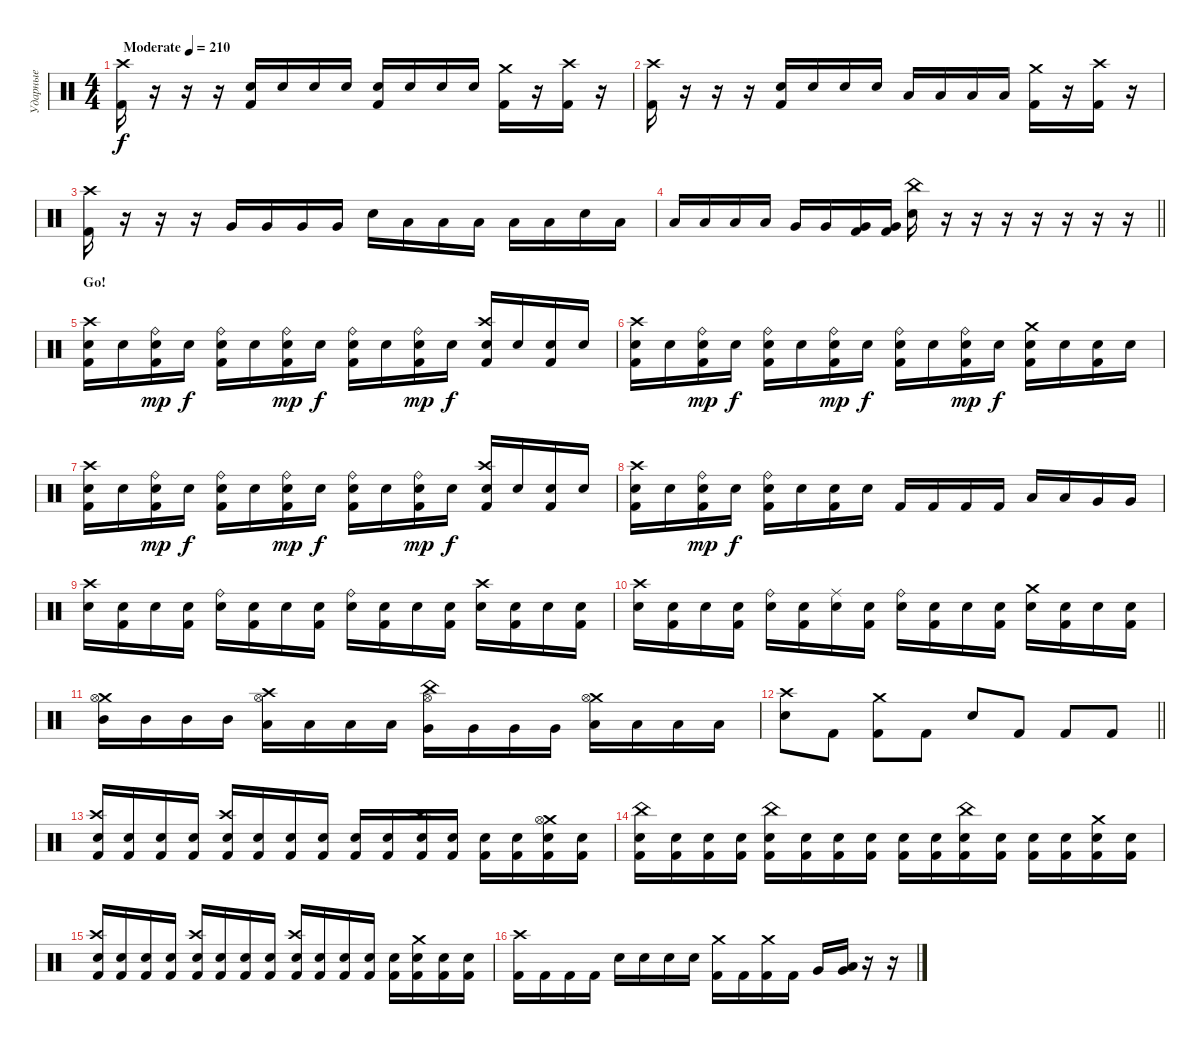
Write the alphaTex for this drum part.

\track ("Ударные" "Ударные") {instrument percussion}
\staff {score}
\articulation defaults
\ts (4 4)
\tempo (210 "Moderate")
\clef neutral
\ks c
("Kick (hit) 2" "Crash high (hit)").16{dy f} r.16 r.16 r.16 ("Electric Snare (hit)" "Kick (hit) 2").16 "Electric Snare (hit)".16 "Electric Snare (hit)".16 "Electric Snare (hit)".16 ("Electric Snare (hit)" "Kick (hit) 2").16 "Electric Snare (hit)".16 "Electric Snare (hit)".16 "Electric Snare (hit)".16 ("Kick (hit) 2" "Crash medium (hit)").16 r.16 ("Kick (hit) 2" "Crash high (hit)").16 r.16 |
("Kick (hit) 2" "Crash high (hit)").16 r.16 r.16 r.16 ("Electric Snare (hit)" "Kick (hit) 2").16 "Electric Snare (hit)".16 "Electric Snare (hit)".16 "Electric Snare (hit)".16 "Low Tom (hit)".16 "Low Tom (hit)".16 "Low Tom (hit)".16 "Low Tom (hit)".16 ("Kick (hit) 2" "Crash medium (hit)").16 r.16 ("Kick (hit) 2" "Crash high (hit)").16 r.16 |
("Kick (hit) 2" "Crash high (hit)").16 r.16 r.16 r.16 "Very Low Tom (hit)".16 "Very Low Tom (hit)".16 "Very Low Tom (hit)".16 "Very Low Tom (hit)".16 "Electric Snare (hit)".16 "Low Floor Tom (hit)".16 "Low Floor Tom (hit)".16 "Low Floor Tom (hit)".16 "Low Floor Tom (hit)".16 "Low Floor Tom (hit)".16 "Electric Snare (hit)".16 "Low Floor Tom (hit)".16 |
\barLineRight lightlight "Low Tom (hit)".16 "Low Tom (hit)".16 "Low Tom (hit)".16 "Low Tom (hit)".16 "Very Low Tom (hit)".16 "Very Low Tom (hit)".16
("Very Low Tom (hit)" "Kick (hit) 2").16 ("Very Low Tom (hit)" "Kick (hit) 2").16 ("Electric Snare (hit)" "China (hit)").16 r.16 r.16 r.16 r.16 r.16 r.16 r.16 |
\section ("" "Go!")
("Kick (hit) 2" "Electric Snare (hit)" "Crash high (hit)").16 "Electric Snare (hit)".16 ("Kick (hit) 2" "Electric Snare (hit)" "Ride (bell)").16{dy mp} "Electric Snare (hit)".16{dy f} ("Kick (hit) 2" "Electric Snare (hit)" "Ride (bell)").16 "Electric Snare (hit)".16 ("Kick (hit) 2" "Electric Snare (hit)" "Ride (bell)").16{dy mp} "Electric Snare (hit)".16{dy f} ("Kick (hit) 2" "Electric Snare (hit)" "Ride (bell)").16 "Electric Snare (hit)".16 ("Kick (hit) 2" "Electric Snare (hit)" "Ride (bell)").16{dy mp} "Electric Snare (hit)".16{dy f} ("Kick (hit) 2" "Electric Snare (hit)" "Crash high (hit)").16 "Electric Snare (hit)".16 ("Kick (hit) 2" "Electric Snare (hit)").16 "Electric Snare (hit)".16 |
("Kick (hit) 2" "Electric Snare (hit)" "Crash high (hit)").16 "Electric Snare (hit)".16 ("Kick (hit) 2" "Electric Snare (hit)" "Ride (bell)").16{dy mp} "Electric Snare (hit)".16{dy f} ("Kick (hit) 2" "Electric Snare (hit)" "Ride (bell)").16 "Electric Snare (hit)".16 ("Kick (hit) 2" "Electric Snare (hit)" "Ride (bell)").16{dy mp} "Electric Snare (hit)".16{dy f} ("Kick (hit) 2" "Electric Snare (hit)" "Ride (bell)").16 "Electric Snare (hit)".16 ("Kick (hit) 2" "Electric Snare (hit)" "Ride (bell)").16{dy mp} "Electric Snare (hit)".16{dy f} ("Kick (hit) 2" "Electric Snare (hit)" "Crash medium (hit)").16 "Electric Snare (hit)".16 ("Kick (hit) 2" "Electric Snare (hit)").16 "Electric Snare (hit)".16 |
("Kick (hit) 2" "Electric Snare (hit)" "Crash high (hit)").16 "Electric Snare (hit)".16 ("Kick (hit) 2" "Electric Snare (hit)" "Ride (bell)").16{dy mp} "Electric Snare (hit)".16{dy f} ("Kick (hit) 2" "Electric Snare (hit)" "Ride (bell)").16 "Electric Snare (hit)".16 ("Kick (hit) 2" "Electric Snare (hit)" "Ride (bell)").16{dy mp} "Electric Snare (hit)".16{dy f} ("Kick (hit) 2" "Electric Snare (hit)" "Ride (bell)").16 "Electric Snare (hit)".16 ("Kick (hit) 2" "Electric Snare (hit)" "Ride (bell)").16{dy mp} "Electric Snare (hit)".16{dy f} ("Kick (hit) 2" "Electric Snare (hit)" "Crash high (hit)").16 "Electric Snare (hit)".16 ("Kick (hit) 2" "Electric Snare (hit)").16 "Electric Snare (hit)".16 |
("Kick (hit) 2" "Electric Snare (hit)" "Crash high (hit)").16 "Electric Snare (hit)".16 ("Kick (hit) 2" "Electric Snare (hit)" "Ride (bell)").16{dy mp} "Electric Snare (hit)".16{dy f} ("Kick (hit) 2" "Electric Snare (hit)" "Ride (bell)").16 "Electric Snare (hit)".16 ("Kick (hit) 2" "Electric Snare (hit)").16 "Electric Snare (hit)".16 "Kick (hit) 2".16 "Kick (hit) 2".16 "Kick (hit) 2".16 "Kick (hit) 2".16 "Low Tom (hit)".16 "Low Tom (hit)".16 "Very Low Tom (hit)".16 "Very Low Tom (hit)".16 |
("Electric Snare (hit)" "Crash high (hit)").16 ("Kick (hit) 2" "Electric Snare (hit)").16 "Electric Snare (hit)".16 ("Kick (hit) 2" "Electric Snare (hit)").16 ("Electric Snare (hit)" "Ride (bell)").16 ("Kick (hit) 2" "Electric Snare (hit)").16 "Electric Snare (hit)".16 ("Kick (hit) 2" "Electric Snare (hit)").16 ("Electric Snare (hit)" "Ride (bell)").16 ("Kick (hit) 2" "Electric Snare (hit)").16 "Electric Snare (hit)".16 ("Kick (hit) 2" "Electric Snare (hit)").16 ("Electric Snare (hit)" "Crash high (hit)").16 ("Kick (hit) 2" "Electric Snare (hit)").16 "Electric Snare (hit)".16 ("Kick (hit) 2" "Electric Snare (hit)").16 |
("Electric Snare (hit)" "Crash high (hit)").16 ("Kick (hit) 2" "Electric Snare (hit)").16 "Electric Snare (hit)".16 ("Kick (hit) 2" "Electric Snare (hit)").16 ("Electric Snare (hit)" "Ride (bell)").16 ("Kick (hit) 2" "Electric Snare (hit)").16 ("Electric Snare (hit)" "Ride (middle)").16 ("Kick (hit) 2" "Electric Snare (hit)").16 ("Electric Snare (hit)" "Ride (bell)").16 ("Kick (hit) 2" "Electric Snare (hit)").16 "Electric Snare (hit)".16 ("Kick (hit) 2" "Electric Snare (hit)").16 ("Electric Snare (hit)" "Crash medium (hit)").16 ("Kick (hit) 2" "Electric Snare (hit)").16 "Electric Snare (hit)".16 ("Kick (hit) 2" "Electric Snare (hit)").16 |
("Mid Tom (hit)" "Crash medium (hit)" "Hi-Hat (open)").16 "Mid Tom (hit)".16 "Mid Tom (hit)".16 "Mid Tom (hit)".16 ("Low Tom (hit)" "Crash high (hit)" "Hi-Hat (open)").16 "Low Tom (hit)".16 "Low Tom (hit)".16 "Low Tom (hit)".16 ("Very Low Tom (hit)" "Hi-Hat (open)" "China (hit)").16 "Very Low Tom (hit)".16 "Very Low Tom (hit)".16 "Very Low Tom (hit)".16 ("Low Tom (hit)" "Crash medium (hit)" "Hi-Hat (open)").16 "Low Tom (hit)".16 "Low Tom (hit)".16 "Low Tom (hit)".16 |
\barLineRight lightlight
("Electric Snare (hit)" "Crash high (hit)").8 "Kick (hit) 2".8 ("Kick (hit) 2" "Crash medium (hit)").8 "Kick (hit) 2".8 "Electric Snare (hit)".8 "Kick (hit) 2".8 "Kick (hit) 2".8 "Kick (hit) 2".8 |
\section ("" "")
("Kick (hit) 2" "Electric Snare (hit)" "Crash high (hit)").16 ("Kick (hit) 2" "Electric Snare (hit)").16 ("Kick (hit) 2" "Electric Snare (hit)").16 ("Kick (hit) 2" "Electric Snare (hit)").16 ("Kick (hit) 2" "Electric Snare (hit)" "Crash high (hit)").16 ("Kick (hit) 2" "Electric Snare (hit)").16 ("Kick (hit) 2" "Electric Snare (hit)").16 ("Kick (hit) 2" "Electric Snare (hit)").16 ("Kick (hit) 2" "Electric Snare (hit)").16 ("Kick (hit) 2" "Electric Snare (hit)").16 ("Kick (hit) 2" "Electric Snare (hit)" "Crash high (hit)").16 ("Kick (hit) 2" "Electric Snare (hit)").16 ("Kick (hit) 2" "Electric Snare (hit)").16 ("Kick (hit) 2" "Electric Snare (hit)").16 ("Kick (hit) 2" "Electric Snare (hit)" "Crash medium (hit)" "Hi-Hat (open)").16 ("Kick (hit) 2" "Electric Snare (hit)").16 |
("Kick (hit) 2" "Electric Snare (hit)" "China (hit)").16 ("Kick (hit) 2" "Electric Snare (hit)").16 ("Kick (hit) 2" "Electric Snare (hit)").16 ("Kick (hit) 2" "Electric Snare (hit)").16 ("Kick (hit) 2" "Electric Snare (hit)" "China (hit)").16 ("Kick (hit) 2" "Electric Snare (hit)").16 ("Kick (hit) 2" "Electric Snare (hit)").16 ("Kick (hit) 2" "Electric Snare (hit)").16 ("Kick (hit) 2" "Electric Snare (hit)").16 ("Kick (hit) 2" "Electric Snare (hit)").16 ("Kick (hit) 2" "Electric Snare (hit)" "China (hit)").16 ("Kick (hit) 2" "Electric Snare (hit)").16 ("Kick (hit) 2" "Electric Snare (hit)").16 ("Kick (hit) 2" "Electric Snare (hit)").16 ("Kick (hit) 2" "Electric Snare (hit)" "Crash medium (hit)").16 ("Kick (hit) 2" "Electric Snare (hit)").16 |
("Kick (hit) 2" "Electric Snare (hit)" "Crash high (hit)").16 ("Kick (hit) 2" "Electric Snare (hit)").16 ("Kick (hit) 2" "Electric Snare (hit)").16 ("Kick (hit) 2" "Electric Snare (hit)").16 ("Kick (hit) 2" "Electric Snare (hit)" "Crash high (hit)").16 ("Kick (hit) 2" "Electric Snare (hit)").16 ("Kick (hit) 2" "Electric Snare (hit)").16 ("Kick (hit) 2" "Electric Snare (hit)").16 ("Kick (hit) 2" "Electric Snare (hit)" "Crash high (hit)").16 ("Kick (hit) 2" "Electric Snare (hit)").16 ("Kick (hit) 2" "Electric Snare (hit)").16 ("Kick (hit) 2" "Electric Snare (hit)").16 ("Kick (hit) 2" "Electric Snare (hit)").16 ("Kick (hit) 2" "Electric Snare (hit)" "Crash medium (hit)").16 ("Kick (hit) 2" "Electric Snare (hit)").16 ("Kick (hit) 2" "Electric Snare (hit)").16 |
("Kick (hit) 2" "Crash high (hit)").16 "Kick (hit) 2".16 "Kick (hit) 2".16 "Kick (hit) 2".16 "Electric Snare (hit)".16 "Electric Snare (hit)".16 "Electric Snare (hit)".16 "Electric Snare (hit)".16 ("Kick (hit) 2" "Crash medium (hit)").16 "Kick (hit) 2".16 ("Kick (hit) 2" "Crash medium (hit)").16 "Kick (hit) 2".16 "Very Low Tom (hit)".16 ("Very Low Tom (hit)" "Low Floor Tom (hit)").16 r.16 r.16
